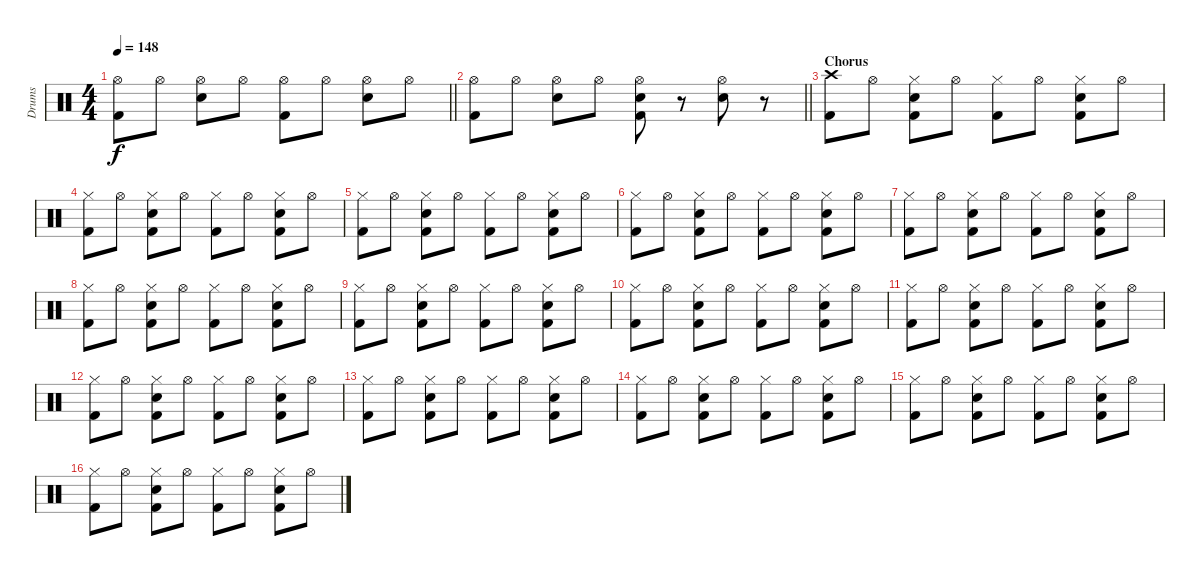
\track ("Drums" "Drums") {instrument percussion}
\staff {score}
\articulation defaults
\ts (4 4)
\tempo 148
\clef neutral
\barLineRight lightlight
\ks c
("Hi-Hat (open)" "Kick (hit) 2").8{dy f} "Hi-Hat (open)".8 ("Hi-Hat (open)" "Electric Snare (hit)").8 "Hi-Hat (open)".8 ("Hi-Hat (open)" "Kick (hit) 2").8 "Hi-Hat (open)".8 ("Hi-Hat (open)" "Electric Snare (hit)").8 "Hi-Hat (open)".8 |
\barLineRight lightlight
("Hi-Hat (open)" "Kick (hit) 2").8 "Hi-Hat (open)".8 ("Hi-Hat (open)" "Electric Snare (hit)").8 "Hi-Hat (open)".8 ("Hi-Hat (open)" "Electric Snare (hit)" "Kick (hit) 2").8 r.8 ("Hi-Hat (open)" "Electric Snare (hit)").8 r.8 |
\section ("" "Chorus")
("Crash high (hit)" "Kick (hit) 2").8 "Hi-Hat (open)".8 ("Hi-Hat (closed)" "Electric Snare (hit)" "Kick (hit) 2").8 "Hi-Hat (open)".8 ("Hi-Hat (closed)" "Kick (hit) 2").8 "Hi-Hat (open)".8 ("Hi-Hat (closed)" "Electric Snare (hit)" "Kick (hit) 2").8 "Hi-Hat (open)".8 |
("Hi-Hat (closed)" "Kick (hit) 2").8 "Hi-Hat (open)".8 ("Hi-Hat (closed)" "Electric Snare (hit)" "Kick (hit) 2").8 "Hi-Hat (open)".8 ("Hi-Hat (closed)" "Kick (hit) 2").8 "Hi-Hat (open)".8 ("Hi-Hat (closed)" "Electric Snare (hit)" "Kick (hit) 2").8 "Hi-Hat (open)".8 |
("Hi-Hat (closed)" "Kick (hit) 2").8 "Hi-Hat (open)".8 ("Hi-Hat (closed)" "Electric Snare (hit)" "Kick (hit) 2").8 "Hi-Hat (open)".8 ("Hi-Hat (closed)" "Kick (hit) 2").8 "Hi-Hat (open)".8 ("Hi-Hat (closed)" "Electric Snare (hit)" "Kick (hit) 2").8 "Hi-Hat (open)".8 |
("Hi-Hat (closed)" "Kick (hit) 2").8 "Hi-Hat (open)".8 ("Hi-Hat (closed)" "Electric Snare (hit)" "Kick (hit) 2").8 "Hi-Hat (open)".8 ("Hi-Hat (closed)" "Kick (hit) 2").8 "Hi-Hat (open)".8 ("Hi-Hat (closed)" "Electric Snare (hit)" "Kick (hit) 2").8 "Hi-Hat (open)".8 |
("Hi-Hat (closed)" "Kick (hit) 2").8 "Hi-Hat (open)".8 ("Hi-Hat (closed)" "Electric Snare (hit)" "Kick (hit) 2").8 "Hi-Hat (open)".8 ("Hi-Hat (closed)" "Kick (hit) 2").8 "Hi-Hat (open)".8 ("Hi-Hat (closed)" "Electric Snare (hit)" "Kick (hit) 2").8 "Hi-Hat (open)".8 |
("Hi-Hat (closed)" "Kick (hit) 2").8 "Hi-Hat (open)".8 ("Hi-Hat (closed)" "Electric Snare (hit)" "Kick (hit) 2").8 "Hi-Hat (open)".8 ("Hi-Hat (closed)" "Kick (hit) 2").8 "Hi-Hat (open)".8 ("Hi-Hat (closed)" "Electric Snare (hit)" "Kick (hit) 2").8 "Hi-Hat (open)".8 |
("Hi-Hat (closed)" "Kick (hit) 2").8 "Hi-Hat (open)".8 ("Hi-Hat (closed)" "Electric Snare (hit)" "Kick (hit) 2").8 "Hi-Hat (open)".8 ("Hi-Hat (closed)" "Kick (hit) 2").8 "Hi-Hat (open)".8 ("Hi-Hat (closed)" "Electric Snare (hit)" "Kick (hit) 2").8 "Hi-Hat (open)".8 |
("Hi-Hat (closed)" "Kick (hit) 2").8 "Hi-Hat (open)".8 ("Hi-Hat (closed)" "Electric Snare (hit)" "Kick (hit) 2").8 "Hi-Hat (open)".8 ("Hi-Hat (closed)" "Kick (hit) 2").8 "Hi-Hat (open)".8 ("Hi-Hat (closed)" "Electric Snare (hit)" "Kick (hit) 2").8 "Hi-Hat (open)".8 |
("Hi-Hat (closed)" "Kick (hit) 2").8 "Hi-Hat (open)".8 ("Hi-Hat (closed)" "Electric Snare (hit)" "Kick (hit) 2").8 "Hi-Hat (open)".8 ("Hi-Hat (closed)" "Kick (hit) 2").8 "Hi-Hat (open)".8 ("Hi-Hat (closed)" "Electric Snare (hit)" "Kick (hit) 2").8 "Hi-Hat (open)".8 |
("Hi-Hat (closed)" "Kick (hit) 2").8 "Hi-Hat (open)".8 ("Hi-Hat (closed)" "Electric Snare (hit)" "Kick (hit) 2").8 "Hi-Hat (open)".8 ("Hi-Hat (closed)" "Kick (hit) 2").8 "Hi-Hat (open)".8 ("Hi-Hat (closed)" "Electric Snare (hit)" "Kick (hit) 2").8 "Hi-Hat (open)".8 |
("Hi-Hat (closed)" "Kick (hit) 2").8 "Hi-Hat (open)".8 ("Hi-Hat (closed)" "Electric Snare (hit)" "Kick (hit) 2").8 "Hi-Hat (open)".8 ("Hi-Hat (closed)" "Kick (hit) 2").8 "Hi-Hat (open)".8 ("Hi-Hat (closed)" "Electric Snare (hit)" "Kick (hit) 2").8 "Hi-Hat (open)".8 |
("Hi-Hat (closed)" "Kick (hit) 2").8 "Hi-Hat (open)".8 ("Hi-Hat (closed)" "Electric Snare (hit)" "Kick (hit) 2").8 "Hi-Hat (open)".8 ("Hi-Hat (closed)" "Kick (hit) 2").8 "Hi-Hat (open)".8 ("Hi-Hat (closed)" "Electric Snare (hit)" "Kick (hit) 2").8 "Hi-Hat (open)".8 |
("Hi-Hat (closed)" "Kick (hit) 2").8 "Hi-Hat (open)".8 ("Hi-Hat (closed)" "Electric Snare (hit)" "Kick (hit) 2").8 "Hi-Hat (open)".8 ("Hi-Hat (closed)" "Kick (hit) 2").8 "Hi-Hat (open)".8 ("Hi-Hat (closed)" "Electric Snare (hit)" "Kick (hit) 2").8 "Hi-Hat (open)".8 |
("Hi-Hat (closed)" "Kick (hit) 2").8 "Hi-Hat (open)".8 ("Hi-Hat (closed)" "Electric Snare (hit)" "Kick (hit) 2").8 "Hi-Hat (open)".8 ("Hi-Hat (closed)" "Kick (hit) 2").8 "Hi-Hat (open)".8 ("Hi-Hat (closed)" "Electric Snare (hit)" "Kick (hit) 2").8 "Hi-Hat (open)".8
